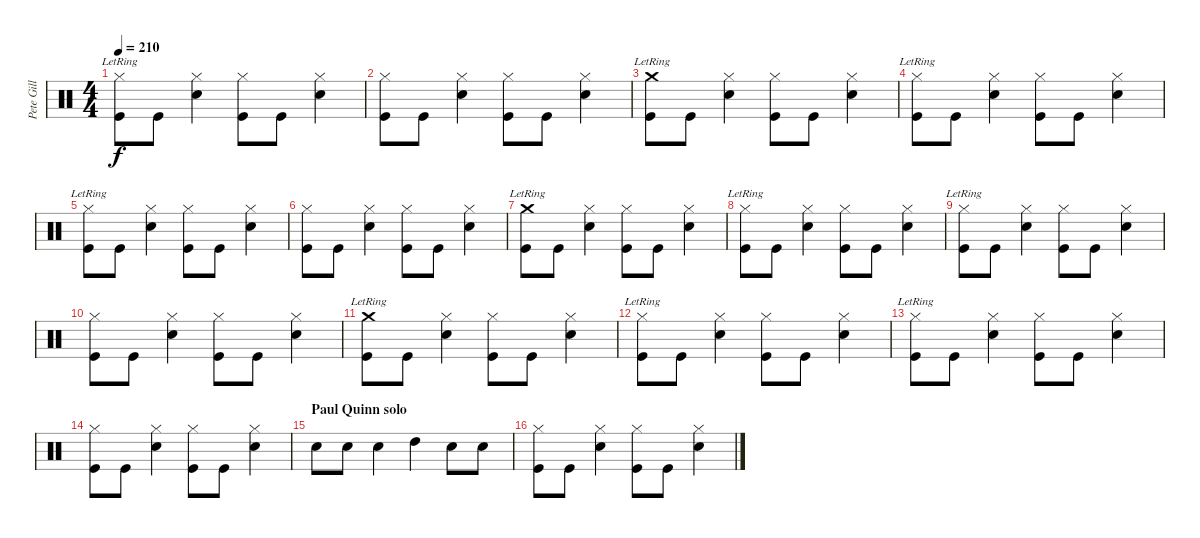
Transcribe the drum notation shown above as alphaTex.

\track ("Pete Gill" "Pete Gill") {instrument percussion}
\staff {score}
\articulation defaults
\ts (4 4)
\tempo 210
\clef neutral
\ks c
("Hi-Hat (closed)"{lr} "Kick (hit)").8{dy f} "Kick (hit)".8 ("Hi-Hat (closed)" "Snare (hit) 2").4 ("Hi-Hat (closed)" "Kick (hit)").8 "Kick (hit)".8 ("Hi-Hat (closed)" "Snare (hit) 2").4 |
("Hi-Hat (closed)" "Kick (hit)").8 "Kick (hit)".8 ("Hi-Hat (closed)" "Snare (hit) 2").4 ("Hi-Hat (closed)" "Kick (hit)").8 "Kick (hit)".8 ("Hi-Hat (closed)" "Snare (hit) 2").4 |
("Crash medium (hit)"{lr} "Kick (hit)").8 "Kick (hit)".8 ("Hi-Hat (closed)" "Snare (hit) 2").4 ("Hi-Hat (closed)" "Kick (hit)").8 "Kick (hit)".8 ("Hi-Hat (closed)" "Snare (hit) 2").4 |
("Hi-Hat (closed)"{lr} "Kick (hit)").8 "Kick (hit)".8 ("Hi-Hat (closed)" "Snare (hit) 2").4 ("Hi-Hat (closed)" "Kick (hit)").8 "Kick (hit)".8 ("Hi-Hat (closed)" "Snare (hit) 2").4 |
("Hi-Hat (closed)"{lr} "Kick (hit)").8 "Kick (hit)".8 ("Hi-Hat (closed)" "Snare (hit) 2").4 ("Hi-Hat (closed)" "Kick (hit)").8 "Kick (hit)".8 ("Hi-Hat (closed)" "Snare (hit) 2").4 |
("Hi-Hat (closed)" "Kick (hit)").8 "Kick (hit)".8 ("Hi-Hat (closed)" "Snare (hit) 2").4 ("Hi-Hat (closed)" "Kick (hit)").8 "Kick (hit)".8 ("Hi-Hat (closed)" "Snare (hit) 2").4 |
("Crash medium (hit)"{lr} "Kick (hit)").8 "Kick (hit)".8 ("Hi-Hat (closed)" "Snare (hit) 2").4 ("Hi-Hat (closed)" "Kick (hit)").8 "Kick (hit)".8 ("Hi-Hat (closed)" "Snare (hit) 2").4 |
("Hi-Hat (closed)"{lr} "Kick (hit)").8 "Kick (hit)".8 ("Hi-Hat (closed)" "Snare (hit) 2").4 ("Hi-Hat (closed)" "Kick (hit)").8 "Kick (hit)".8 ("Hi-Hat (closed)" "Snare (hit) 2").4 |
("Hi-Hat (closed)"{lr} "Kick (hit)").8 "Kick (hit)".8 ("Hi-Hat (closed)" "Snare (hit) 2").4 ("Hi-Hat (closed)" "Kick (hit)").8 "Kick (hit)".8 ("Hi-Hat (closed)" "Snare (hit) 2").4 |
("Hi-Hat (closed)" "Kick (hit)").8 "Kick (hit)".8 ("Hi-Hat (closed)" "Snare (hit) 2").4 ("Hi-Hat (closed)" "Kick (hit)").8 "Kick (hit)".8 ("Hi-Hat (closed)" "Snare (hit) 2").4 |
("Crash medium (hit)"{lr} "Kick (hit)").8 "Kick (hit)".8 ("Hi-Hat (closed)" "Snare (hit) 2").4 ("Hi-Hat (closed)" "Kick (hit)").8 "Kick (hit)".8 ("Hi-Hat (closed)" "Snare (hit) 2").4 |
("Hi-Hat (closed)"{lr} "Kick (hit)").8 "Kick (hit)".8 ("Hi-Hat (closed)" "Snare (hit) 2").4 ("Hi-Hat (closed)" "Kick (hit)").8 "Kick (hit)".8 ("Hi-Hat (closed)" "Snare (hit) 2").4 |
("Hi-Hat (closed)"{lr} "Kick (hit)").8 "Kick (hit)".8 ("Hi-Hat (closed)" "Snare (hit) 2").4 ("Hi-Hat (closed)" "Kick (hit)").8 "Kick (hit)".8 ("Hi-Hat (closed)" "Snare (hit) 2").4 |
("Hi-Hat (closed)" "Kick (hit)").8 "Kick (hit)".8 ("Hi-Hat (closed)" "Snare (hit) 2").4 ("Hi-Hat (closed)" "Kick (hit)").8 "Kick (hit)".8 ("Hi-Hat (closed)" "Snare (hit) 2").4 |
\section ("" "Paul Quinn solo")
"Snare (hit) 2".8 "Snare (hit) 2".8 "Snare (hit) 2".4 "High Tom (hit)".4 "Snare (hit) 2".8 "Snare (hit) 2".8 |
("Hi-Hat (closed)" "Kick (hit)").8 "Kick (hit)".8 ("Hi-Hat (closed)" "Snare (hit) 2").4 ("Hi-Hat (closed)" "Kick (hit)").8 "Kick (hit)".8 ("Hi-Hat (closed)" "Snare (hit) 2").4
